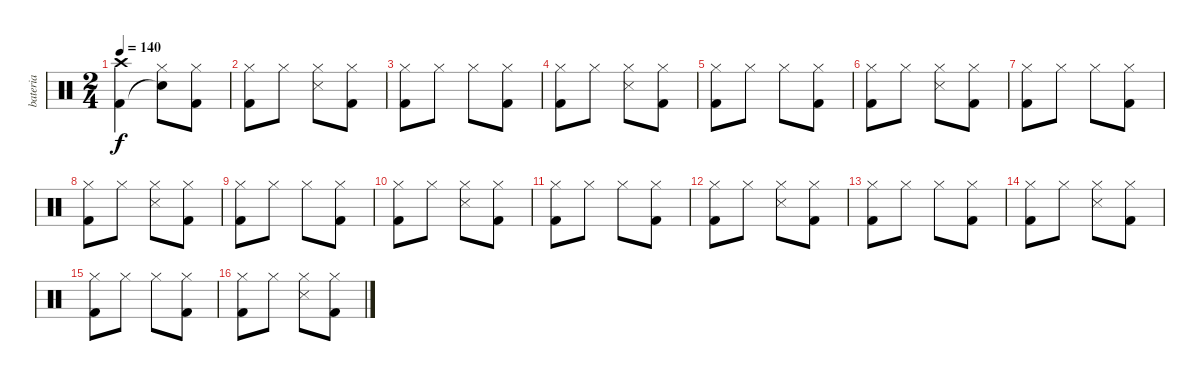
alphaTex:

\track ("bateria" "bateria") {instrument percussion}
\staff {score}
\articulation defaults
\ts (2 4)
\tempo 140
\clef neutral
\ks c
("Crash high (hit)" "Kick (hit) 2").4{dy f} ("Hi-Hat (closed)" "Snare (hit)"{t}).8 ("Hi-Hat (closed)" "Kick (hit) 2").8 |
("Hi-Hat (closed)" "Kick (hit) 2").8 "Hi-Hat (closed)".8 ("Hi-Hat (closed)" "Snare (side stick) 3").8 ("Hi-Hat (closed)" "Kick (hit) 2").8 |
("Hi-Hat (closed)" "Kick (hit) 2").8 "Hi-Hat (closed)".8 "Hi-Hat (closed)".8 ("Hi-Hat (closed)" "Kick (hit) 2").8 |
("Hi-Hat (closed)" "Kick (hit) 2").8 "Hi-Hat (closed)".8 ("Hi-Hat (closed)" "Snare (side stick) 3").8 ("Hi-Hat (closed)" "Kick (hit) 2").8 |
("Hi-Hat (closed)" "Kick (hit) 2").8 "Hi-Hat (closed)".8 "Hi-Hat (closed)".8 ("Hi-Hat (closed)" "Kick (hit) 2").8 |
("Hi-Hat (closed)" "Kick (hit) 2").8 "Hi-Hat (closed)".8 ("Hi-Hat (closed)" "Snare (side stick) 3").8 ("Hi-Hat (closed)" "Kick (hit) 2").8 |
("Hi-Hat (closed)" "Kick (hit) 2").8 "Hi-Hat (closed)".8 "Hi-Hat (closed)".8 ("Hi-Hat (closed)" "Kick (hit) 2").8 |
("Hi-Hat (closed)" "Kick (hit) 2").8 "Hi-Hat (closed)".8 ("Hi-Hat (closed)" "Snare (side stick) 3").8 ("Hi-Hat (closed)" "Kick (hit) 2").8 |
("Hi-Hat (closed)" "Kick (hit) 2").8 "Hi-Hat (closed)".8 "Hi-Hat (closed)".8 ("Hi-Hat (closed)" "Kick (hit) 2").8 |
("Hi-Hat (closed)" "Kick (hit) 2").8 "Hi-Hat (closed)".8 ("Hi-Hat (closed)" "Snare (side stick) 3").8 ("Hi-Hat (closed)" "Kick (hit) 2").8 |
("Hi-Hat (closed)" "Kick (hit) 2").8 "Hi-Hat (closed)".8 "Hi-Hat (closed)".8 ("Hi-Hat (closed)" "Kick (hit) 2").8 |
("Hi-Hat (closed)" "Kick (hit) 2").8 "Hi-Hat (closed)".8 ("Hi-Hat (closed)" "Snare (side stick) 3").8 ("Hi-Hat (closed)" "Kick (hit) 2").8 |
("Hi-Hat (closed)" "Kick (hit) 2").8 "Hi-Hat (closed)".8 "Hi-Hat (closed)".8 ("Hi-Hat (closed)" "Kick (hit) 2").8 |
("Hi-Hat (closed)" "Kick (hit) 2").8 "Hi-Hat (closed)".8 ("Hi-Hat (closed)" "Snare (side stick) 3").8 ("Hi-Hat (closed)" "Kick (hit) 2").8 |
("Hi-Hat (closed)" "Kick (hit) 2").8 "Hi-Hat (closed)".8 "Hi-Hat (closed)".8 ("Hi-Hat (closed)" "Kick (hit) 2").8 |
("Hi-Hat (closed)" "Kick (hit) 2").8 "Hi-Hat (closed)".8 ("Hi-Hat (closed)" "Snare (side stick) 3").8 ("Hi-Hat (closed)" "Kick (hit) 2").8
